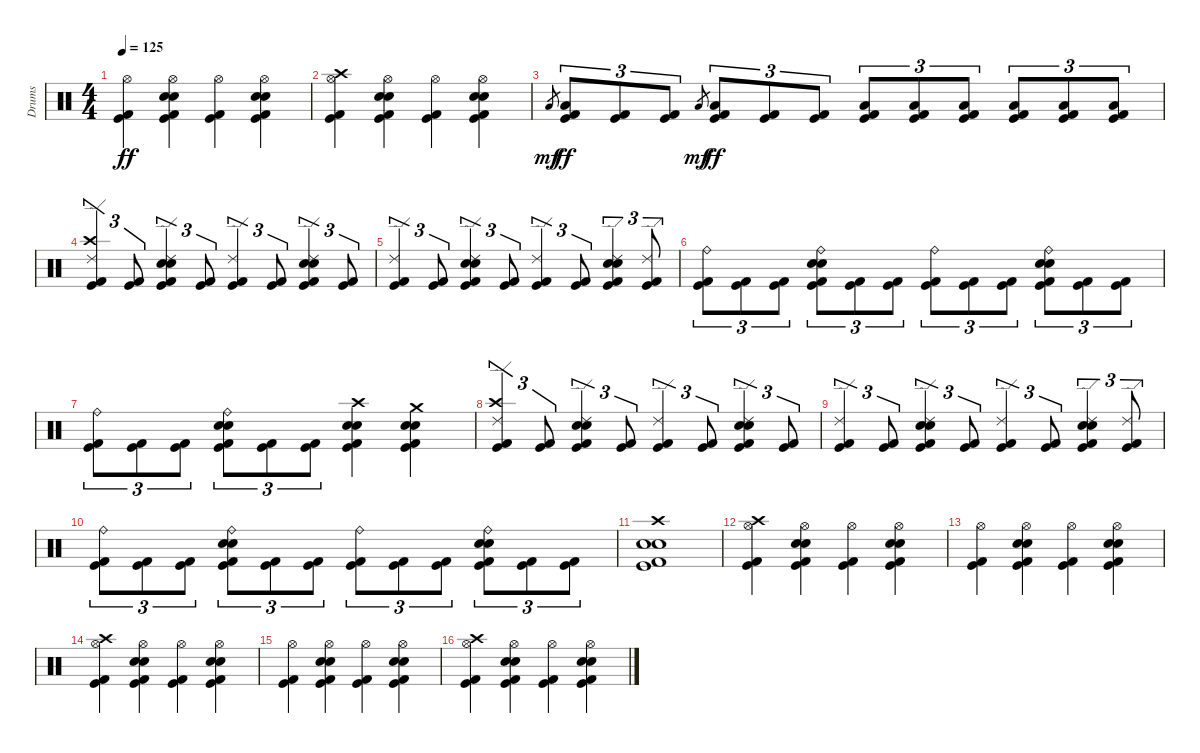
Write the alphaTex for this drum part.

\track ("Drums" "Drums") {instrument percussion}
\staff {score}
\articulation defaults
\ts (4 4)
\tempo 125
\clef neutral
\ks c
("Hi-Hat (open)" "Kick (hit) 2" "Kick (hit)").4{dy ff} ("Hi-Hat (open)" "Snare (hit) 2" "Electric Snare (hit)" "Kick (hit) 2" "Kick (hit)").4 ("Hi-Hat (open)" "Kick (hit) 2" "Kick (hit)").4 ("Hi-Hat (open)" "Snare (hit) 2" "Electric Snare (hit)" "Kick (hit) 2" "Kick (hit)").4 |
("Hi-Hat (open)" "Crash high (hit)" "Kick (hit) 2" "Kick (hit)").4 ("Hi-Hat (open)" "Snare (hit) 2" "Electric Snare (hit)" "Kick (hit) 2" "Kick (hit)").4 ("Hi-Hat (open)" "Kick (hit) 2" "Kick (hit)").4 ("Hi-Hat (open)" "Snare (hit) 2" "Electric Snare (hit)" "Kick (hit) 2" "Kick (hit)").4 |
"Low Tom (hit)".8{gr dy mf} ("Low Tom (hit)" "Kick (hit) 2" "Kick (hit)").8{tu (3 2) dy ff} ("Kick (hit) 2" "Kick (hit)").8{tu (3 2)} ("Kick (hit) 2" "Kick (hit)").8{tu (3 2)} "Low Tom (hit)".8{gr dy mf} ("Low Tom (hit)" "Kick (hit) 2" "Kick (hit)").8{tu (3 2) dy ff} ("Kick (hit) 2" "Kick (hit)").8{tu (3 2)} ("Kick (hit) 2" "Kick (hit)").8{tu (3 2)} ("Low Tom (hit)" "Kick (hit) 2" "Kick (hit)").8{tu (3 2)} ("Low Tom (hit)" "Kick (hit) 2" "Kick (hit)").8{tu (3 2)} ("Low Tom (hit)" "Kick (hit) 2" "Kick (hit)").8{tu (3 2)} ("Low Tom (hit)" "Kick (hit) 2" "Kick (hit)").8{tu (3 2)} ("Low Tom (hit)" "Kick (hit) 2" "Kick (hit)").8{tu (3 2)} ("Low Tom (hit)" "Kick (hit) 2" "Kick (hit)").8{tu (3 2)} |
("Ride (edge) 2" "Crash high (hit)" "Kick (hit) 2" "Kick (hit)").4{tu (3 2)} ("Kick (hit) 2" "Kick (hit)").8{tu (3 2)} ("Ride (edge) 2" "Snare (hit) 2" "Electric Snare (hit)" "Kick (hit) 2" "Kick (hit)").4{tu (3 2)} ("Kick (hit) 2" "Kick (hit)").8{tu (3 2)} ("Ride (edge) 2" "Kick (hit) 2" "Kick (hit)").4{tu (3 2)} ("Kick (hit) 2" "Kick (hit)").8{tu (3 2)} ("Ride (edge) 2" "Snare (hit) 2" "Electric Snare (hit)" "Kick (hit) 2" "Kick (hit)").4{tu (3 2)} ("Kick (hit) 2" "Kick (hit)").8{tu (3 2)} |
("Ride (edge) 2" "Kick (hit) 2" "Kick (hit)").4{tu (3 2)} ("Kick (hit) 2" "Kick (hit)").8{tu (3 2)} ("Ride (edge) 2" "Snare (hit) 2" "Electric Snare (hit)" "Kick (hit) 2" "Kick (hit)").4{tu (3 2)} ("Kick (hit) 2" "Kick (hit)").8{tu (3 2)} ("Ride (edge) 2" "Kick (hit) 2" "Kick (hit)").4{tu (3 2)} ("Kick (hit) 2" "Kick (hit)").8{tu (3 2)} ("Ride (edge) 2" "Snare (hit) 2" "Electric Snare (hit)" "Kick (hit) 2" "Kick (hit)").4{tu (3 2)} ("Ride (edge) 2" "Kick (hit) 2" "Kick (hit)").8{tu (3 2)} |
("Ride (bell)" "Kick (hit) 2" "Kick (hit)").8{tu (3 2)} ("Kick (hit) 2" "Kick (hit)").8{tu (3 2)} ("Kick (hit) 2" "Kick (hit)").8{tu (3 2)} ("Ride (bell)" "Snare (hit) 2" "Electric Snare (hit)" "Kick (hit) 2" "Kick (hit)").8{tu (3 2)} ("Kick (hit) 2" "Kick (hit)").8{tu (3 2)} ("Kick (hit) 2" "Kick (hit)").8{tu (3 2)} ("Ride (bell)" "Kick (hit) 2" "Kick (hit)").8{tu (3 2)} ("Kick (hit) 2" "Kick (hit)").8{tu (3 2)} ("Kick (hit) 2" "Kick (hit)").8{tu (3 2)} ("Ride (bell)" "Snare (hit) 2" "Electric Snare (hit)" "Kick (hit) 2" "Kick (hit)").8{tu (3 2)} ("Kick (hit) 2" "Kick (hit)").8{tu (3 2)} ("Kick (hit) 2" "Kick (hit)").8{tu (3 2)} |
("Ride (bell)" "Kick (hit) 2" "Kick (hit)").8{tu (3 2)} ("Kick (hit) 2" "Kick (hit)").8{tu (3 2)} ("Kick (hit) 2" "Kick (hit)").8{tu (3 2)} ("Ride (bell)" "Snare (hit) 2" "Electric Snare (hit)" "Kick (hit) 2" "Kick (hit)").8{tu (3 2)} ("Kick (hit) 2" "Kick (hit)").8{tu (3 2)} ("Kick (hit) 2" "Kick (hit)").8{tu (3 2)} ("Crash high (hit)" "Electric Snare (hit)" "Snare (hit) 2" "Kick (hit)" "Kick (hit) 2").4 ("Crash medium (hit)" "Electric Snare (hit)" "Snare (hit) 2" "Kick (hit)" "Kick (hit) 2").4 |
("Ride (edge) 2" "Crash high (hit)" "Kick (hit) 2" "Kick (hit)").4{tu (3 2)} ("Kick (hit) 2" "Kick (hit)").8{tu (3 2)} ("Ride (edge) 2" "Snare (hit) 2" "Electric Snare (hit)" "Kick (hit) 2" "Kick (hit)").4{tu (3 2)} ("Kick (hit) 2" "Kick (hit)").8{tu (3 2)} ("Ride (edge) 2" "Kick (hit) 2" "Kick (hit)").4{tu (3 2)} ("Kick (hit) 2" "Kick (hit)").8{tu (3 2)} ("Ride (edge) 2" "Snare (hit) 2" "Electric Snare (hit)" "Kick (hit) 2" "Kick (hit)").4{tu (3 2)} ("Kick (hit) 2" "Kick (hit)").8{tu (3 2)} |
("Ride (edge) 2" "Kick (hit) 2" "Kick (hit)").4{tu (3 2)} ("Kick (hit) 2" "Kick (hit)").8{tu (3 2)} ("Ride (edge) 2" "Snare (hit) 2" "Electric Snare (hit)" "Kick (hit) 2" "Kick (hit)").4{tu (3 2)} ("Kick (hit) 2" "Kick (hit)").8{tu (3 2)} ("Ride (edge) 2" "Kick (hit) 2" "Kick (hit)").4{tu (3 2)} ("Kick (hit) 2" "Kick (hit)").8{tu (3 2)} ("Ride (edge) 2" "Snare (hit) 2" "Electric Snare (hit)" "Kick (hit) 2" "Kick (hit)").4{tu (3 2)} ("Ride (edge) 2" "Kick (hit) 2" "Kick (hit)").8{tu (3 2)} |
("Ride (bell)" "Kick (hit) 2" "Kick (hit)").8{tu (3 2)} ("Kick (hit) 2" "Kick (hit)").8{tu (3 2)} ("Kick (hit) 2" "Kick (hit)").8{tu (3 2)} ("Ride (bell)" "Snare (hit) 2" "Electric Snare (hit)" "Kick (hit) 2" "Kick (hit)").8{tu (3 2)} ("Kick (hit) 2" "Kick (hit)").8{tu (3 2)} ("Kick (hit) 2" "Kick (hit)").8{tu (3 2)} ("Ride (bell)" "Kick (hit) 2" "Kick (hit)").8{tu (3 2)} ("Kick (hit) 2" "Kick (hit)").8{tu (3 2)} ("Kick (hit) 2" "Kick (hit)").8{tu (3 2)} ("Ride (bell)" "Snare (hit) 2" "Electric Snare (hit)" "Kick (hit) 2" "Kick (hit)").8{tu (3 2)} ("Kick (hit) 2" "Kick (hit)").8{tu (3 2)} ("Kick (hit) 2" "Kick (hit)").8{tu (3 2)} |
("Crash high (hit)" "Snare (hit) 2" "Electric Snare (hit)" "Kick (hit) 2" "Kick (hit)").1 |
("Hi-Hat (open)" "Crash high (hit)" "Kick (hit) 2" "Kick (hit)").4 ("Hi-Hat (open)" "Snare (hit) 2" "Electric Snare (hit)" "Kick (hit) 2" "Kick (hit)").4 ("Hi-Hat (open)" "Kick (hit) 2" "Kick (hit)").4 ("Hi-Hat (open)" "Snare (hit) 2" "Electric Snare (hit)" "Kick (hit) 2" "Kick (hit)").4 |
("Hi-Hat (open)" "Kick (hit) 2" "Kick (hit)").4 ("Hi-Hat (open)" "Snare (hit) 2" "Electric Snare (hit)" "Kick (hit) 2" "Kick (hit)").4 ("Hi-Hat (open)" "Kick (hit) 2" "Kick (hit)").4 ("Hi-Hat (open)" "Snare (hit) 2" "Electric Snare (hit)" "Kick (hit) 2" "Kick (hit)").4 |
("Hi-Hat (open)" "Crash high (hit)" "Kick (hit) 2" "Kick (hit)").4 ("Hi-Hat (open)" "Snare (hit) 2" "Electric Snare (hit)" "Kick (hit) 2" "Kick (hit)").4 ("Hi-Hat (open)" "Kick (hit) 2" "Kick (hit)").4 ("Hi-Hat (open)" "Snare (hit) 2" "Electric Snare (hit)" "Kick (hit) 2" "Kick (hit)").4 |
("Hi-Hat (open)" "Kick (hit) 2" "Kick (hit)").4 ("Hi-Hat (open)" "Snare (hit) 2" "Electric Snare (hit)" "Kick (hit) 2" "Kick (hit)").4 ("Hi-Hat (open)" "Kick (hit) 2" "Kick (hit)").4 ("Hi-Hat (open)" "Snare (hit) 2" "Electric Snare (hit)" "Kick (hit) 2" "Kick (hit)").4 |
("Hi-Hat (open)" "Crash high (hit)" "Kick (hit) 2" "Kick (hit)").4 ("Hi-Hat (open)" "Snare (hit) 2" "Electric Snare (hit)" "Kick (hit) 2" "Kick (hit)").4 ("Hi-Hat (open)" "Kick (hit) 2" "Kick (hit)").4 ("Hi-Hat (open)" "Snare (hit) 2" "Electric Snare (hit)" "Kick (hit) 2" "Kick (hit)").4
